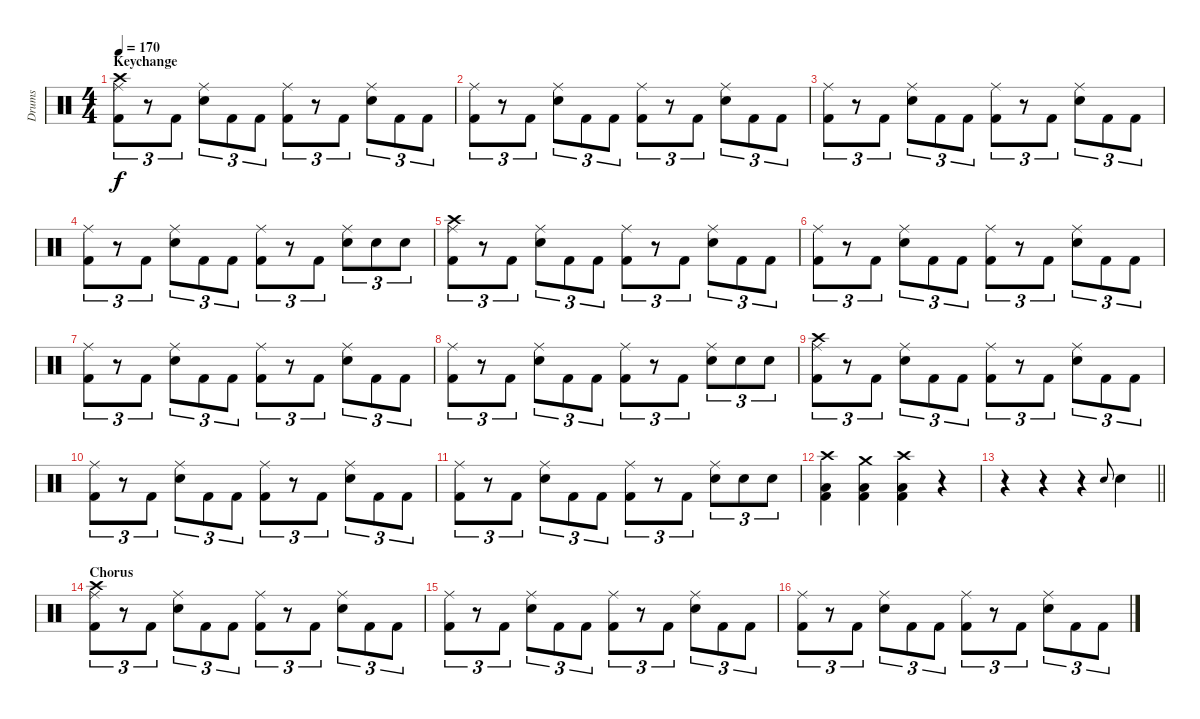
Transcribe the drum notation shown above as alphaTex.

\track ("Drums" "Drums") {instrument percussion}
\staff {score}
\articulation defaults
\ts (4 4)
\section ("" "Keychange")
\tempo 170
\clef neutral
\ks c
("Crash high (hit)" "Ride (middle)" "Kick (hit) 2").8{tu (3 2) dy f} r.8{tu (3 2)} "Kick (hit) 2".8{tu (3 2)} ("Ride (middle)" "Snare (hit) 2").8{tu (3 2)} "Kick (hit) 2".8{tu (3 2)} "Kick (hit) 2".8{tu (3 2)} ("Ride (middle)" "Kick (hit) 2").8{tu (3 2)} r.8{tu (3 2)} "Kick (hit) 2".8{tu (3 2)} ("Ride (middle)" "Snare (hit) 2").8{tu (3 2)} "Kick (hit) 2".8{tu (3 2)} "Kick (hit) 2".8{tu (3 2)} |
("Ride (middle)" "Kick (hit) 2").8{tu (3 2)} r.8{tu (3 2)} "Kick (hit) 2".8{tu (3 2)} ("Ride (middle)" "Snare (hit) 2").8{tu (3 2)} "Kick (hit) 2".8{tu (3 2)} "Kick (hit) 2".8{tu (3 2)} ("Ride (middle)" "Kick (hit) 2").8{tu (3 2)} r.8{tu (3 2)} "Kick (hit) 2".8{tu (3 2)} ("Ride (middle)" "Snare (hit) 2").8{tu (3 2)} "Kick (hit) 2".8{tu (3 2)} "Kick (hit) 2".8{tu (3 2)} |
("Ride (middle)" "Kick (hit) 2").8{tu (3 2)} r.8{tu (3 2)} "Kick (hit) 2".8{tu (3 2)} ("Ride (middle)" "Snare (hit) 2").8{tu (3 2)} "Kick (hit) 2".8{tu (3 2)} "Kick (hit) 2".8{tu (3 2)} ("Ride (middle)" "Kick (hit) 2").8{tu (3 2)} r.8{tu (3 2)} "Kick (hit) 2".8{tu (3 2)} ("Ride (middle)" "Snare (hit) 2").8{tu (3 2)} "Kick (hit) 2".8{tu (3 2)} "Kick (hit) 2".8{tu (3 2)} |
("Ride (middle)" "Kick (hit) 2").8{tu (3 2)} r.8{tu (3 2)} "Kick (hit) 2".8{tu (3 2)} ("Ride (middle)" "Snare (hit) 2").8{tu (3 2)} "Kick (hit) 2".8{tu (3 2)} "Kick (hit) 2".8{tu (3 2)} ("Ride (middle)" "Kick (hit) 2").8{tu (3 2)} r.8{tu (3 2)} "Kick (hit) 2".8{tu (3 2)} ("Ride (middle)" "Snare (hit) 2").8{tu (3 2)} "Snare (hit) 2".8{tu (3 2)} "Snare (hit) 2".8{tu (3 2)} |
("Crash high (hit)" "Ride (middle)" "Kick (hit) 2").8{tu (3 2)} r.8{tu (3 2)} "Kick (hit) 2".8{tu (3 2)} ("Ride (middle)" "Snare (hit) 2").8{tu (3 2)} "Kick (hit) 2".8{tu (3 2)} "Kick (hit) 2".8{tu (3 2)} ("Ride (middle)" "Kick (hit) 2").8{tu (3 2)} r.8{tu (3 2)} "Kick (hit) 2".8{tu (3 2)} ("Ride (middle)" "Snare (hit) 2").8{tu (3 2)} "Kick (hit) 2".8{tu (3 2)} "Kick (hit) 2".8{tu (3 2)} |
("Ride (middle)" "Kick (hit) 2").8{tu (3 2)} r.8{tu (3 2)} "Kick (hit) 2".8{tu (3 2)} ("Ride (middle)" "Snare (hit) 2").8{tu (3 2)} "Kick (hit) 2".8{tu (3 2)} "Kick (hit) 2".8{tu (3 2)} ("Ride (middle)" "Kick (hit) 2").8{tu (3 2)} r.8{tu (3 2)} "Kick (hit) 2".8{tu (3 2)} ("Ride (middle)" "Snare (hit) 2").8{tu (3 2)} "Kick (hit) 2".8{tu (3 2)} "Kick (hit) 2".8{tu (3 2)} |
("Ride (middle)" "Kick (hit) 2").8{tu (3 2)} r.8{tu (3 2)} "Kick (hit) 2".8{tu (3 2)} ("Ride (middle)" "Snare (hit) 2").8{tu (3 2)} "Kick (hit) 2".8{tu (3 2)} "Kick (hit) 2".8{tu (3 2)} ("Ride (middle)" "Kick (hit) 2").8{tu (3 2)} r.8{tu (3 2)} "Kick (hit) 2".8{tu (3 2)} ("Ride (middle)" "Snare (hit) 2").8{tu (3 2)} "Kick (hit) 2".8{tu (3 2)} "Kick (hit) 2".8{tu (3 2)} |
("Ride (middle)" "Kick (hit) 2").8{tu (3 2)} r.8{tu (3 2)} "Kick (hit) 2".8{tu (3 2)} ("Ride (middle)" "Snare (hit) 2").8{tu (3 2)} "Kick (hit) 2".8{tu (3 2)} "Kick (hit) 2".8{tu (3 2)} ("Ride (middle)" "Kick (hit) 2").8{tu (3 2)} r.8{tu (3 2)} "Kick (hit) 2".8{tu (3 2)} ("Ride (middle)" "Snare (hit) 2").8{tu (3 2)} "Snare (hit) 2".8{tu (3 2)} "Snare (hit) 2".8{tu (3 2)} |
("Crash high (hit)" "Ride (middle)" "Kick (hit) 2").8{tu (3 2)} r.8{tu (3 2)} "Kick (hit) 2".8{tu (3 2)} ("Ride (middle)" "Snare (hit) 2").8{tu (3 2)} "Kick (hit) 2".8{tu (3 2)} "Kick (hit) 2".8{tu (3 2)} ("Ride (middle)" "Kick (hit) 2").8{tu (3 2)} r.8{tu (3 2)} "Kick (hit) 2".8{tu (3 2)} ("Ride (middle)" "Snare (hit) 2").8{tu (3 2)} "Kick (hit) 2".8{tu (3 2)} "Kick (hit) 2".8{tu (3 2)} |
("Ride (middle)" "Kick (hit) 2").8{tu (3 2)} r.8{tu (3 2)} "Kick (hit) 2".8{tu (3 2)} ("Ride (middle)" "Snare (hit) 2").8{tu (3 2)} "Kick (hit) 2".8{tu (3 2)} "Kick (hit) 2".8{tu (3 2)} ("Ride (middle)" "Kick (hit) 2").8{tu (3 2)} r.8{tu (3 2)} "Kick (hit) 2".8{tu (3 2)} ("Ride (middle)" "Snare (hit) 2").8{tu (3 2)} "Kick (hit) 2".8{tu (3 2)} "Kick (hit) 2".8{tu (3 2)} |
("Ride (middle)" "Kick (hit) 2").8{tu (3 2)} r.8{tu (3 2)} "Kick (hit) 2".8{tu (3 2)} ("Ride (middle)" "Snare (hit) 2").8{tu (3 2)} "Kick (hit) 2".8{tu (3 2)} "Kick (hit) 2".8{tu (3 2)} ("Ride (middle)" "Kick (hit) 2").8{tu (3 2)} r.8{tu (3 2)} "Kick (hit) 2".8{tu (3 2)} ("Ride (middle)" "Snare (hit) 2").8{tu (3 2)} "Snare (hit) 2".8{tu (3 2)} "Snare (hit) 2".8{tu (3 2)} |
("Crash high (hit)" "Low Floor Tom (hit)" "Kick (hit) 2").4 ("Crash medium (hit)" "Low Floor Tom (hit)" "Kick (hit) 2").4 ("Crash high (hit)" "Low Floor Tom (hit)" "Kick (hit) 2").4 r.4 |
\barLineRight lightlight
r.4 r.4 r.4 "Snare (hit) 2".8{gr onbeat} "Snare (hit) 2".4 |
\section ("" "Chorus")
("Crash high (hit)" "Ride (middle)" "Kick (hit) 2").8{tu (3 2)} r.8{tu (3 2)} "Kick (hit) 2".8{tu (3 2)} ("Ride (middle)" "Snare (hit) 2").8{tu (3 2)} "Kick (hit) 2".8{tu (3 2)} "Kick (hit) 2".8{tu (3 2)} ("Ride (middle)" "Kick (hit) 2").8{tu (3 2)} r.8{tu (3 2)} "Kick (hit) 2".8{tu (3 2)} ("Ride (middle)" "Snare (hit) 2").8{tu (3 2)} "Kick (hit) 2".8{tu (3 2)} "Kick (hit) 2".8{tu (3 2)} |
("Ride (middle)" "Kick (hit) 2").8{tu (3 2)} r.8{tu (3 2)} "Kick (hit) 2".8{tu (3 2)} ("Ride (middle)" "Snare (hit) 2").8{tu (3 2)} "Kick (hit) 2".8{tu (3 2)} "Kick (hit) 2".8{tu (3 2)} ("Ride (middle)" "Kick (hit) 2").8{tu (3 2)} r.8{tu (3 2)} "Kick (hit) 2".8{tu (3 2)} ("Ride (middle)" "Snare (hit) 2").8{tu (3 2)} "Kick (hit) 2".8{tu (3 2)} "Kick (hit) 2".8{tu (3 2)} |
("Ride (middle)" "Kick (hit) 2").8{tu (3 2)} r.8{tu (3 2)} "Kick (hit) 2".8{tu (3 2)} ("Ride (middle)" "Snare (hit) 2").8{tu (3 2)} "Kick (hit) 2".8{tu (3 2)} "Kick (hit) 2".8{tu (3 2)} ("Ride (middle)" "Kick (hit) 2").8{tu (3 2)} r.8{tu (3 2)} "Kick (hit) 2".8{tu (3 2)} ("Ride (middle)" "Snare (hit) 2").8{tu (3 2)} "Kick (hit) 2".8{tu (3 2)} "Kick (hit) 2".8{tu (3 2)}
